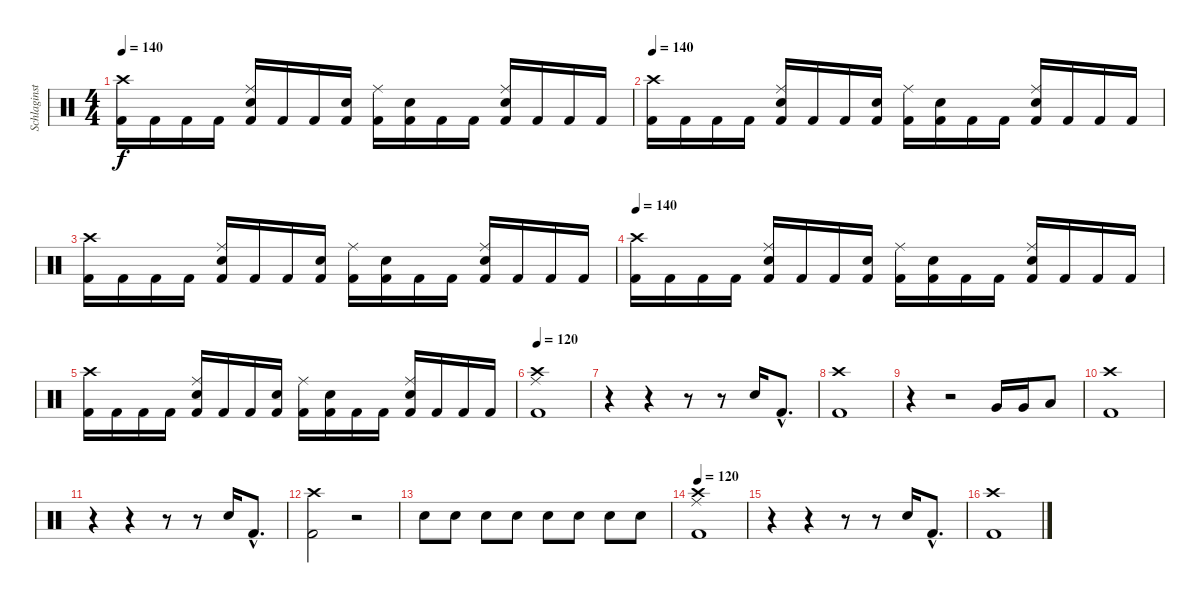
\track ("Schlaginstrumente - Auswahl" "Schlaginst") {instrument percussion}
\staff {score}
\articulation defaults
\ts (4 4)
\tempo 140
\clef neutral
\ks c
("Crash high (hit)" "Kick (hit) 2").16{dy f} "Kick (hit) 2".16 "Kick (hit) 2".16 "Kick (hit) 2".16 ("Ride (middle)" "Snare (hit) 2" "Kick (hit) 2").16 "Kick (hit) 2".16 "Kick (hit) 2".16 ("Snare (hit) 2" "Kick (hit) 2").16 ("Ride (middle)" "Kick (hit) 2").16 ("Snare (hit) 2" "Kick (hit) 2").16 "Kick (hit) 2".16 "Kick (hit) 2".16 ("Ride (middle)" "Snare (hit) 2" "Kick (hit) 2").16 "Kick (hit) 2".16 "Kick (hit) 2".16 "Kick (hit) 2".16 |
\tempo 140
("Crash high (hit)" "Kick (hit) 2").16 "Kick (hit) 2".16 "Kick (hit) 2".16 "Kick (hit) 2".16 ("Ride (middle)" "Snare (hit) 2" "Kick (hit) 2").16 "Kick (hit) 2".16 "Kick (hit) 2".16 ("Snare (hit) 2" "Kick (hit) 2").16 ("Ride (middle)" "Kick (hit) 2").16 ("Snare (hit) 2" "Kick (hit) 2").16 "Kick (hit) 2".16 "Kick (hit) 2".16 ("Ride (middle)" "Snare (hit) 2" "Kick (hit) 2").16 "Kick (hit) 2".16 "Kick (hit) 2".16 "Kick (hit) 2".16 |
("Crash high (hit)" "Kick (hit) 2").16 "Kick (hit) 2".16 "Kick (hit) 2".16 "Kick (hit) 2".16 ("Ride (middle)" "Snare (hit) 2" "Kick (hit) 2").16 "Kick (hit) 2".16 "Kick (hit) 2".16 ("Snare (hit) 2" "Kick (hit) 2").16 ("Ride (middle)" "Kick (hit) 2").16 ("Snare (hit) 2" "Kick (hit) 2").16 "Kick (hit) 2".16 "Kick (hit) 2".16 ("Ride (middle)" "Snare (hit) 2" "Kick (hit) 2").16 "Kick (hit) 2".16 "Kick (hit) 2".16 "Kick (hit) 2".16 |
\tempo 140
("Crash high (hit)" "Kick (hit) 2").16 "Kick (hit) 2".16 "Kick (hit) 2".16 "Kick (hit) 2".16 ("Ride (middle)" "Snare (hit) 2" "Kick (hit) 2").16 "Kick (hit) 2".16 "Kick (hit) 2".16 ("Snare (hit) 2" "Kick (hit) 2").16 ("Ride (middle)" "Kick (hit) 2").16 ("Snare (hit) 2" "Kick (hit) 2").16 "Kick (hit) 2".16 "Kick (hit) 2".16 ("Ride (middle)" "Snare (hit) 2" "Kick (hit) 2").16 "Kick (hit) 2".16 "Kick (hit) 2".16 "Kick (hit) 2".16 |
("Crash high (hit)" "Kick (hit) 2").16 "Kick (hit) 2".16 "Kick (hit) 2".16 "Kick (hit) 2".16 ("Ride (middle)" "Snare (hit) 2" "Kick (hit) 2").16 "Kick (hit) 2".16 "Kick (hit) 2".16 ("Snare (hit) 2" "Kick (hit) 2").16 ("Ride (middle)" "Kick (hit) 2").16 ("Snare (hit) 2" "Kick (hit) 2").16 "Kick (hit) 2".16 "Kick (hit) 2".16 ("Ride (middle)" "Snare (hit) 2" "Kick (hit) 2").16 "Kick (hit) 2".16 "Kick (hit) 2".16 "Kick (hit) 2".16 |
\tempo 120
("Ride (middle)" "Crash high (hit)" "Kick (hit) 2").1 |
r.4 r.4 r.8 r.8 "Snare (hit) 2".16 "Kick (hit) 2"{hac}.8{d} |
("Crash high (hit)" "Kick (hit) 2").1 |
r.4 r.2 "Very Low Tom (hit)".16 "Very Low Tom (hit)".16 "Low Floor Tom (hit)".8 |
("Crash high (hit)" "Kick (hit) 2").1 |
r.4 r.4 r.8 r.8 "Snare (hit) 2".16 "Kick (hit) 2"{hac}.8{d} |
("Crash high (hit)" "Kick (hit) 2").2 r.2{volume 5} |
"Snare (hit) 2".8{volume 13} "Snare (hit) 2".8 "Snare (hit) 2".8 "Snare (hit) 2".8 "Snare (hit) 2".8 "Snare (hit) 2".8 "Snare (hit) 2".8 "Snare (hit) 2".8 |
\tempo 120
("Ride (middle)" "Crash high (hit)" "Kick (hit) 2").1 |
r.4 r.4 r.8 r.8 "Snare (hit) 2".16 "Kick (hit) 2"{hac}.8{d} |
("Crash high (hit)" "Kick (hit) 2").1
